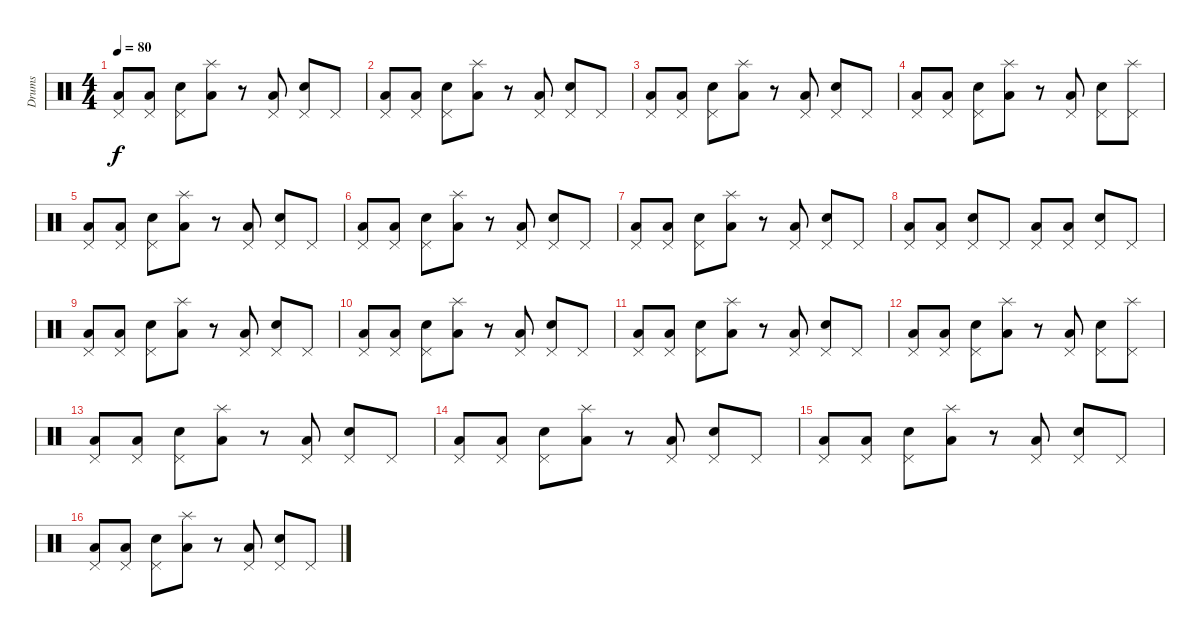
\track ("Drums" "Drums") {instrument percussion}
\staff {score}
\articulation defaults
\ts (4 4)
\tempo 80
\clef neutral
\ks c
("Low Floor Tom (hit)" "Pedal Hi-Hat (hit)").8{dy f} ("Low Floor Tom (hit)" "Pedal Hi-Hat (hit)").8 ("Electric Snare (hit)" "Pedal Hi-Hat (hit)").8 ("Low Floor Tom (hit)" "Splash (hit)").8 r.8 ("Low Floor Tom (hit)" "Pedal Hi-Hat (hit)").8 ("Electric Snare (hit)" "Pedal Hi-Hat (hit)").8 "Pedal Hi-Hat (hit)".8 |
("Low Floor Tom (hit)" "Pedal Hi-Hat (hit)").8 ("Low Floor Tom (hit)" "Pedal Hi-Hat (hit)").8 ("Electric Snare (hit)" "Pedal Hi-Hat (hit)").8 ("Low Floor Tom (hit)" "Splash (hit)").8 r.8 ("Low Floor Tom (hit)" "Pedal Hi-Hat (hit)").8 ("Electric Snare (hit)" "Pedal Hi-Hat (hit)").8 "Pedal Hi-Hat (hit)".8 |
("Low Floor Tom (hit)" "Pedal Hi-Hat (hit)").8 ("Low Floor Tom (hit)" "Pedal Hi-Hat (hit)").8 ("Electric Snare (hit)" "Pedal Hi-Hat (hit)").8 ("Low Floor Tom (hit)" "Splash (hit)").8 r.8 ("Low Floor Tom (hit)" "Pedal Hi-Hat (hit)").8 ("Electric Snare (hit)" "Pedal Hi-Hat (hit)").8 "Pedal Hi-Hat (hit)".8 |
("Low Floor Tom (hit)" "Pedal Hi-Hat (hit)").8 ("Low Floor Tom (hit)" "Pedal Hi-Hat (hit)").8 ("Electric Snare (hit)" "Pedal Hi-Hat (hit)").8 ("Low Floor Tom (hit)" "Splash (hit)").8 r.8 ("Low Floor Tom (hit)" "Pedal Hi-Hat (hit)").8 ("Electric Snare (hit)" "Pedal Hi-Hat (hit)").8 ("Pedal Hi-Hat (hit)" "Splash (hit)").8 |
("Low Floor Tom (hit)" "Pedal Hi-Hat (hit)").8 ("Low Floor Tom (hit)" "Pedal Hi-Hat (hit)").8 ("Electric Snare (hit)" "Pedal Hi-Hat (hit)").8 ("Low Floor Tom (hit)" "Splash (hit)").8 r.8 ("Low Floor Tom (hit)" "Pedal Hi-Hat (hit)").8 ("Electric Snare (hit)" "Pedal Hi-Hat (hit)").8 "Pedal Hi-Hat (hit)".8 |
("Low Floor Tom (hit)" "Pedal Hi-Hat (hit)").8 ("Low Floor Tom (hit)" "Pedal Hi-Hat (hit)").8 ("Electric Snare (hit)" "Pedal Hi-Hat (hit)").8 ("Low Floor Tom (hit)" "Splash (hit)").8 r.8 ("Low Floor Tom (hit)" "Pedal Hi-Hat (hit)").8 ("Electric Snare (hit)" "Pedal Hi-Hat (hit)").8 "Pedal Hi-Hat (hit)".8 |
("Low Floor Tom (hit)" "Pedal Hi-Hat (hit)").8 ("Low Floor Tom (hit)" "Pedal Hi-Hat (hit)").8 ("Electric Snare (hit)" "Pedal Hi-Hat (hit)").8 ("Low Floor Tom (hit)" "Splash (hit)").8 r.8 ("Low Floor Tom (hit)" "Pedal Hi-Hat (hit)").8 ("Electric Snare (hit)" "Pedal Hi-Hat (hit)").8 "Pedal Hi-Hat (hit)".8 |
("Low Floor Tom (hit)" "Pedal Hi-Hat (hit)").8 ("Low Floor Tom (hit)" "Pedal Hi-Hat (hit)").8 ("Electric Snare (hit)" "Pedal Hi-Hat (hit)").8 "Pedal Hi-Hat (hit)".8 ("Low Floor Tom (hit)" "Pedal Hi-Hat (hit)").8 ("Low Floor Tom (hit)" "Pedal Hi-Hat (hit)").8 ("Electric Snare (hit)" "Pedal Hi-Hat (hit)").8 "Pedal Hi-Hat (hit)".8 |
("Low Floor Tom (hit)" "Pedal Hi-Hat (hit)").8 ("Low Floor Tom (hit)" "Pedal Hi-Hat (hit)").8 ("Electric Snare (hit)" "Pedal Hi-Hat (hit)").8 ("Low Floor Tom (hit)" "Splash (hit)").8 r.8 ("Low Floor Tom (hit)" "Pedal Hi-Hat (hit)").8 ("Electric Snare (hit)" "Pedal Hi-Hat (hit)").8 "Pedal Hi-Hat (hit)".8 |
("Low Floor Tom (hit)" "Pedal Hi-Hat (hit)").8 ("Low Floor Tom (hit)" "Pedal Hi-Hat (hit)").8 ("Electric Snare (hit)" "Pedal Hi-Hat (hit)").8 ("Low Floor Tom (hit)" "Splash (hit)").8 r.8 ("Low Floor Tom (hit)" "Pedal Hi-Hat (hit)").8 ("Electric Snare (hit)" "Pedal Hi-Hat (hit)").8 "Pedal Hi-Hat (hit)".8 |
("Low Floor Tom (hit)" "Pedal Hi-Hat (hit)").8 ("Low Floor Tom (hit)" "Pedal Hi-Hat (hit)").8 ("Electric Snare (hit)" "Pedal Hi-Hat (hit)").8 ("Low Floor Tom (hit)" "Splash (hit)").8 r.8 ("Low Floor Tom (hit)" "Pedal Hi-Hat (hit)").8 ("Electric Snare (hit)" "Pedal Hi-Hat (hit)").8 "Pedal Hi-Hat (hit)".8 |
("Low Floor Tom (hit)" "Pedal Hi-Hat (hit)").8 ("Low Floor Tom (hit)" "Pedal Hi-Hat (hit)").8 ("Electric Snare (hit)" "Pedal Hi-Hat (hit)").8 ("Low Floor Tom (hit)" "Splash (hit)").8 r.8 ("Low Floor Tom (hit)" "Pedal Hi-Hat (hit)").8 ("Electric Snare (hit)" "Pedal Hi-Hat (hit)").8 ("Pedal Hi-Hat (hit)" "Splash (hit)").8 |
("Low Floor Tom (hit)" "Pedal Hi-Hat (hit)").8 ("Low Floor Tom (hit)" "Pedal Hi-Hat (hit)").8 ("Electric Snare (hit)" "Pedal Hi-Hat (hit)").8 ("Low Floor Tom (hit)" "Splash (hit)").8 r.8 ("Low Floor Tom (hit)" "Pedal Hi-Hat (hit)").8 ("Electric Snare (hit)" "Pedal Hi-Hat (hit)").8 "Pedal Hi-Hat (hit)".8 |
("Low Floor Tom (hit)" "Pedal Hi-Hat (hit)").8 ("Low Floor Tom (hit)" "Pedal Hi-Hat (hit)").8 ("Electric Snare (hit)" "Pedal Hi-Hat (hit)").8 ("Low Floor Tom (hit)" "Splash (hit)").8 r.8 ("Low Floor Tom (hit)" "Pedal Hi-Hat (hit)").8 ("Electric Snare (hit)" "Pedal Hi-Hat (hit)").8 "Pedal Hi-Hat (hit)".8 |
("Low Floor Tom (hit)" "Pedal Hi-Hat (hit)").8 ("Low Floor Tom (hit)" "Pedal Hi-Hat (hit)").8 ("Electric Snare (hit)" "Pedal Hi-Hat (hit)").8 ("Low Floor Tom (hit)" "Splash (hit)").8 r.8 ("Low Floor Tom (hit)" "Pedal Hi-Hat (hit)").8 ("Electric Snare (hit)" "Pedal Hi-Hat (hit)").8 "Pedal Hi-Hat (hit)".8 |
("Low Floor Tom (hit)" "Pedal Hi-Hat (hit)").8 ("Low Floor Tom (hit)" "Pedal Hi-Hat (hit)").8 ("Electric Snare (hit)" "Pedal Hi-Hat (hit)").8 ("Low Floor Tom (hit)" "Splash (hit)").8 r.8 ("Low Floor Tom (hit)" "Pedal Hi-Hat (hit)").8 ("Electric Snare (hit)" "Pedal Hi-Hat (hit)").8 "Pedal Hi-Hat (hit)".8
